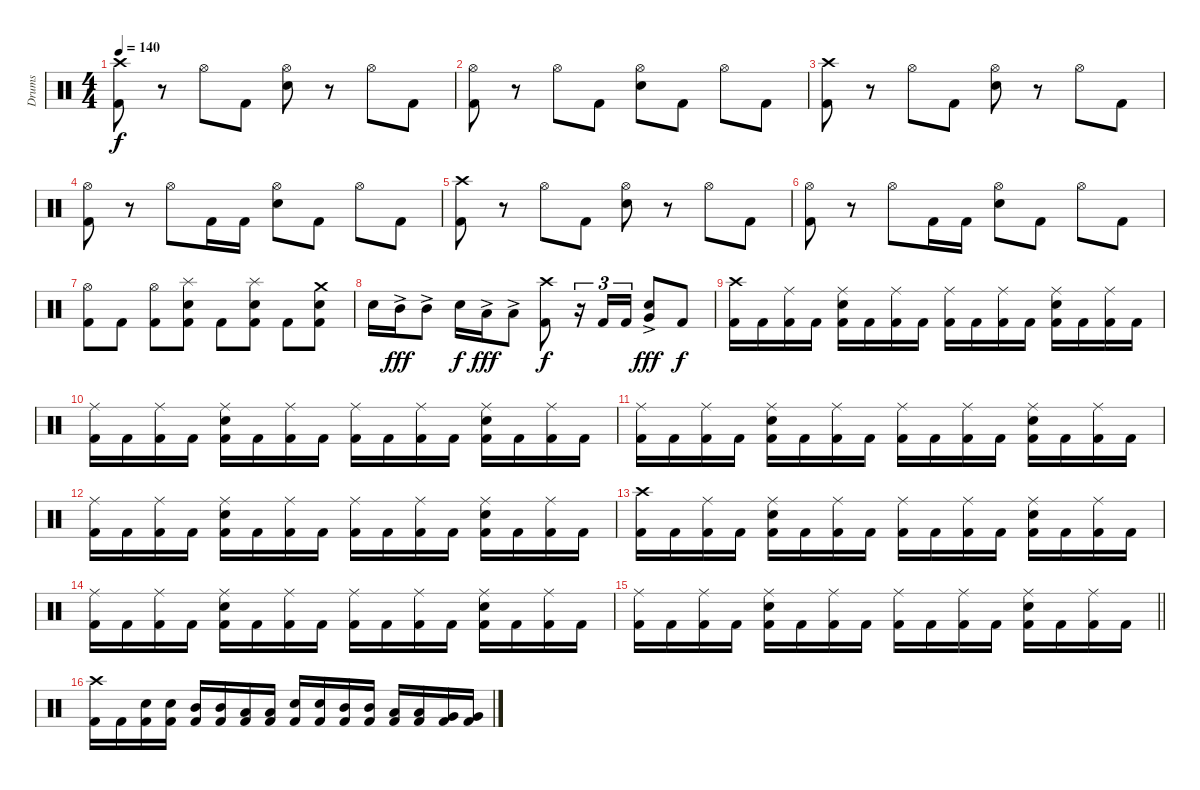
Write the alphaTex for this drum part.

\track ("Drums" "Drums") {instrument percussion}
\staff {score}
\articulation defaults
\ts (4 4)
\tempo 140
\clef neutral
\ks c
("Crash high (hit)" "Kick (hit) 2").8{dy f} r.8 "Hi-Hat (open)".8 "Kick (hit) 2".8 ("Hi-Hat (open)" "Electric Snare (hit)").8 r.8 "Hi-Hat (open)".8 "Kick (hit) 2".8 |
("Hi-Hat (open)" "Kick (hit) 2").8 r.8 "Hi-Hat (open)".8 "Kick (hit) 2".8 ("Hi-Hat (open)" "Electric Snare (hit)").8 "Kick (hit) 2".8 "Hi-Hat (open)".8 "Kick (hit) 2".8 |
("Crash high (hit)" "Kick (hit) 2").8 r.8 "Hi-Hat (open)".8 "Kick (hit) 2".8 ("Hi-Hat (open)" "Electric Snare (hit)").8 r.8 "Hi-Hat (open)".8 "Kick (hit) 2".8 |
("Hi-Hat (open)" "Kick (hit) 2").8 r.8 "Hi-Hat (open)".8 "Kick (hit) 2".16 "Kick (hit) 2".16 ("Hi-Hat (open)" "Electric Snare (hit)").8 "Kick (hit) 2".8 "Hi-Hat (open)".8 "Kick (hit) 2".8 |
("Crash high (hit)" "Kick (hit) 2").8 r.8 "Hi-Hat (open)".8 "Kick (hit) 2".8 ("Hi-Hat (open)" "Electric Snare (hit)").8 r.8 "Hi-Hat (open)".8 "Kick (hit) 2".8 |
("Hi-Hat (open)" "Kick (hit) 2").8 r.8 "Hi-Hat (open)".8 "Kick (hit) 2".16 "Kick (hit) 2".16 ("Hi-Hat (open)" "Electric Snare (hit)").8 "Kick (hit) 2".8 "Hi-Hat (open)".8 "Kick (hit) 2".8 |
("Hi-Hat (open)" "Kick (hit) 2").8 "Kick (hit) 2".8 ("Hi-Hat (open)" "Kick (hit) 2").8 ("Splash (hit)" "Electric Snare (hit)" "Kick (hit) 2").8 "Kick (hit) 2".8 ("Splash (hit)" "Electric Snare (hit)" "Kick (hit) 2").8 "Kick (hit) 2".8 ("Crash medium (hit)" "Electric Snare (hit)" "Kick (hit) 2").8 |
"Electric Snare (hit)".16 "Mid Tom (hit)"{ac}.16{dy fff} "Mid Tom (hit)"{ac}.8 "Electric Snare (hit)".16{dy f} "Low Tom (hit)"{ac}.16{dy fff} "Low Tom (hit)"{ac}.8 ("Crash high (hit)" "Kick (hit) 2").8{dy f} r.16{tu (3 2)} "Kick (hit) 2".16{tu (3 2)} "Kick (hit) 2".16{tu (3 2)} ("Very Low Tom (hit)"{ac} "Electric Snare (hit)").8{dy fff} "Kick (hit) 2".8{dy f} |
("Crash high (hit)" "Kick (hit) 2").16 "Kick (hit) 2".16 ("Ride (middle)" "Kick (hit) 2").16 "Kick (hit) 2".16 ("Ride (middle)" "Electric Snare (hit)" "Kick (hit) 2").16 "Kick (hit) 2".16 ("Ride (middle)" "Kick (hit) 2").16 "Kick (hit) 2".16 ("Ride (middle)" "Kick (hit) 2").16 "Kick (hit) 2".16 ("Ride (middle)" "Kick (hit) 2").16 "Kick (hit) 2".16 ("Ride (middle)" "Electric Snare (hit)" "Kick (hit) 2").16 "Kick (hit) 2".16 ("Ride (middle)" "Kick (hit) 2").16 "Kick (hit) 2".16 |
("Ride (middle)" "Kick (hit) 2").16 "Kick (hit) 2".16 ("Ride (middle)" "Kick (hit) 2").16 "Kick (hit) 2".16 ("Ride (middle)" "Electric Snare (hit)" "Kick (hit) 2").16 "Kick (hit) 2".16 ("Ride (middle)" "Kick (hit) 2").16 "Kick (hit) 2".16 ("Ride (middle)" "Kick (hit) 2").16 "Kick (hit) 2".16 ("Ride (middle)" "Kick (hit) 2").16 "Kick (hit) 2".16 ("Ride (middle)" "Electric Snare (hit)" "Kick (hit) 2").16 "Kick (hit) 2".16 ("Ride (middle)" "Kick (hit) 2").16 "Kick (hit) 2".16 |
("Ride (middle)" "Kick (hit) 2").16 "Kick (hit) 2".16 ("Ride (middle)" "Kick (hit) 2").16 "Kick (hit) 2".16 ("Ride (middle)" "Electric Snare (hit)" "Kick (hit) 2").16 "Kick (hit) 2".16 ("Ride (middle)" "Kick (hit) 2").16 "Kick (hit) 2".16 ("Ride (middle)" "Kick (hit) 2").16 "Kick (hit) 2".16 ("Ride (middle)" "Kick (hit) 2").16 "Kick (hit) 2".16 ("Ride (middle)" "Electric Snare (hit)" "Kick (hit) 2").16 "Kick (hit) 2".16 ("Ride (middle)" "Kick (hit) 2").16 "Kick (hit) 2".16 |
("Ride (middle)" "Kick (hit) 2").16 "Kick (hit) 2".16 ("Ride (middle)" "Kick (hit) 2").16 "Kick (hit) 2".16 ("Ride (middle)" "Electric Snare (hit)" "Kick (hit) 2").16 "Kick (hit) 2".16 ("Ride (middle)" "Kick (hit) 2").16 "Kick (hit) 2".16 ("Ride (middle)" "Kick (hit) 2").16 "Kick (hit) 2".16 ("Ride (middle)" "Kick (hit) 2").16 "Kick (hit) 2".16 ("Ride (middle)" "Electric Snare (hit)" "Kick (hit) 2").16 "Kick (hit) 2".16 ("Ride (middle)" "Kick (hit) 2").16 "Kick (hit) 2".16 |
("Crash high (hit)" "Kick (hit) 2").16 "Kick (hit) 2".16 ("Ride (middle)" "Kick (hit) 2").16 "Kick (hit) 2".16 ("Ride (middle)" "Electric Snare (hit)" "Kick (hit) 2").16 "Kick (hit) 2".16 ("Ride (middle)" "Kick (hit) 2").16 "Kick (hit) 2".16 ("Ride (middle)" "Kick (hit) 2").16 "Kick (hit) 2".16 ("Ride (middle)" "Kick (hit) 2").16 "Kick (hit) 2".16 ("Ride (middle)" "Electric Snare (hit)" "Kick (hit) 2").16 "Kick (hit) 2".16 ("Ride (middle)" "Kick (hit) 2").16 "Kick (hit) 2".16 |
("Ride (middle)" "Kick (hit) 2").16 "Kick (hit) 2".16 ("Ride (middle)" "Kick (hit) 2").16 "Kick (hit) 2".16 ("Ride (middle)" "Electric Snare (hit)" "Kick (hit) 2").16 "Kick (hit) 2".16 ("Ride (middle)" "Kick (hit) 2").16 "Kick (hit) 2".16 ("Ride (middle)" "Kick (hit) 2").16 "Kick (hit) 2".16 ("Ride (middle)" "Kick (hit) 2").16 "Kick (hit) 2".16 ("Ride (middle)" "Electric Snare (hit)" "Kick (hit) 2").16 "Kick (hit) 2".16 ("Ride (middle)" "Kick (hit) 2").16 "Kick (hit) 2".16 |
\barLineRight lightlight
("Ride (middle)" "Kick (hit) 2").16 "Kick (hit) 2".16 ("Ride (middle)" "Kick (hit) 2").16 "Kick (hit) 2".16 ("Ride (middle)" "Electric Snare (hit)" "Kick (hit) 2").16 "Kick (hit) 2".16 ("Ride (middle)" "Kick (hit) 2").16 "Kick (hit) 2".16 ("Ride (middle)" "Kick (hit) 2").16 "Kick (hit) 2".16 ("Ride (middle)" "Kick (hit) 2").16 "Kick (hit) 2".16 ("Ride (middle)" "Electric Snare (hit)" "Kick (hit) 2").16 "Kick (hit) 2".16 ("Ride (middle)" "Kick (hit) 2").16 "Kick (hit) 2".16 |
\section ("" "")
("Crash high (hit)" "Kick (hit) 2").16 "Kick (hit) 2".16 ("Electric Snare (hit)" "Kick (hit) 2").16 ("Electric Snare (hit)" "Kick (hit) 2").16 ("Mid Tom (hit)" "Kick (hit) 2").16 ("Mid Tom (hit)" "Kick (hit) 2").16 ("Low Tom (hit)" "Kick (hit) 2").16 ("Low Tom (hit)" "Kick (hit) 2").16 ("Electric Snare (hit)" "Kick (hit) 2").16 ("Electric Snare (hit)" "Kick (hit) 2").16 ("Mid Tom (hit)" "Kick (hit) 2").16 ("Mid Tom (hit)" "Kick (hit) 2").16 ("Low Tom (hit)" "Kick (hit) 2").16 ("Low Tom (hit)" "Kick (hit) 2").16 ("Very Low Tom (hit)" "Kick (hit) 2").16 ("Very Low Tom (hit)" "Kick (hit) 2").16
